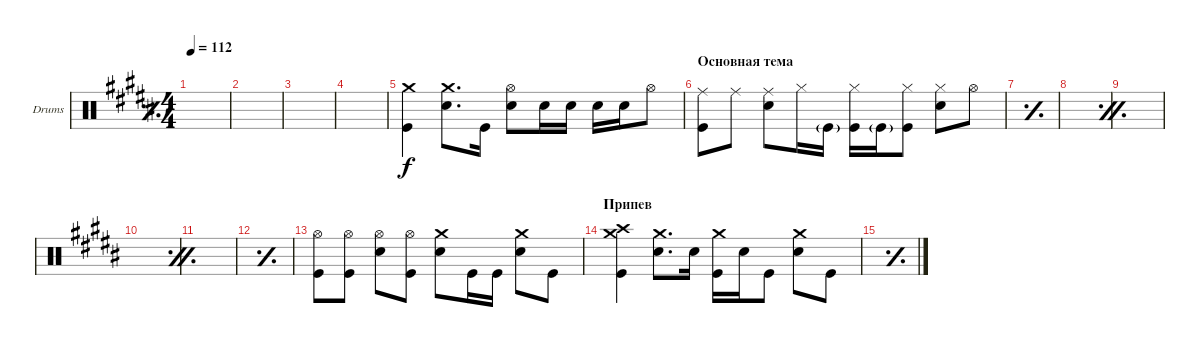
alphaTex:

\bracketExtendMode groupsimilarinstruments
\firstSystemTrackNameOrientation horizontal
\otherSystemsTrackNameOrientation horizontal
\track ("Drumkit" "Drums") {instrument percussion}
\staff {score}
\articulation defaults
\ts (4 4)
\tempo 112
\clef neutral
\simile simple
\ks g#minor
|
|
|
|
("Crash medium (hit)" "Kick (hit)").4 ("Crash medium (hit)" "Snare (hit) 2").8{d} "Kick (hit)".16 ("Hi-Hat (open)" "Snare (hit) 2").8 "Snare (hit) 2".16 "Snare (hit) 2".16 "Snare (hit) 2".16 "Snare (hit) 2".16 "Hi-Hat (open)".8 |
\section ("" "Основная тема")
("Kick (hit)" "Ride (middle)").8 "Ride (middle)".8 ("Snare (hit) 2" "Ride (middle)").8 "Hi-Hat (closed)".16 "Kick (hit)"{g}.16 ("Kick (hit)" "Hi-Hat (closed)").16 "Kick (hit)"{g}.16 ("Kick (hit)" "Hi-Hat (closed)").8 ("Snare (hit) 2" "Hi-Hat (closed)").8 "Hi-Hat (open)".8 |
\simile simple
|
\simile firstofdouble
|
\simile secondofdouble
|
\simile firstofdouble
|
\simile secondofdouble
|
\simile simple
|
\simile none
("Hi-Hat (open)" "Kick (hit)").8 ("Kick (hit)" "Hi-Hat (open)").8 ("Hi-Hat (open)" "Snare (hit) 2").8 ("Kick (hit)" "Hi-Hat (open)").8 ("Crash medium (hit)" "Snare (hit) 2").8 "Kick (hit)".16 "Kick (hit)".16 ("Crash medium (hit)" "Snare (hit) 2").8 "Kick (hit)".8 |
\section ("" "Припев")
("Crash high (hit)" "Kick (hit)" "Crash medium (hit)").4 ("Snare (hit) 2" "Crash medium (hit)").8{d} "Snare (hit) 2".16 ("Kick (hit)" "Crash medium (hit)").16 "Snare (hit) 2".16 "Kick (hit)".8 ("Snare (hit) 2" "Crash medium (hit)").8 "Kick (hit)".8 |
\simile simple
